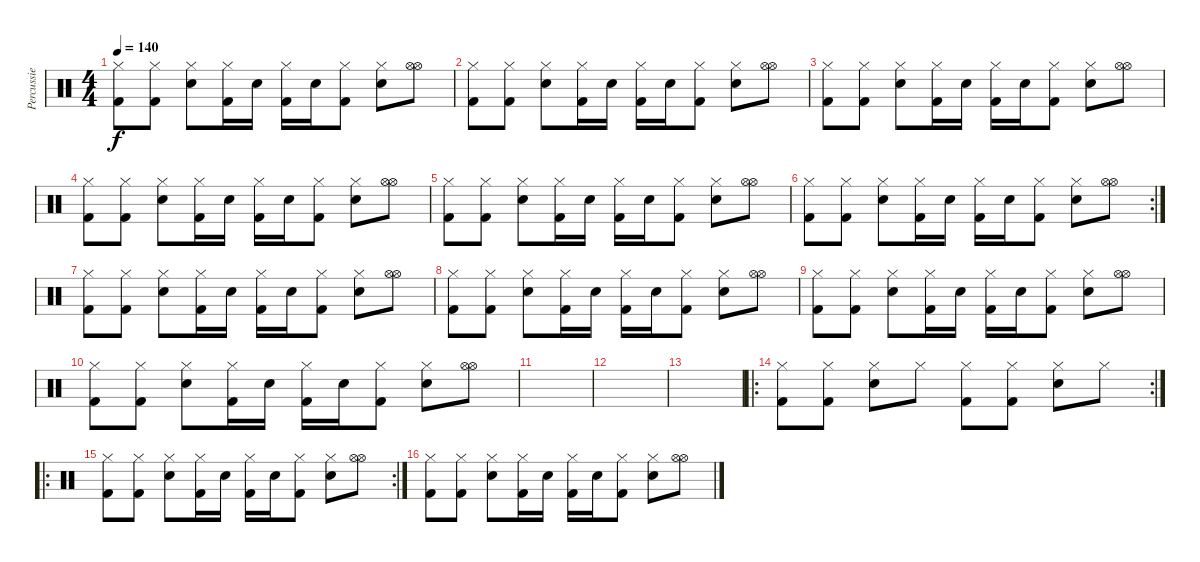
\track ("Percussie" "Percussie") {instrument percussion}
\staff {score}
\articulation defaults
\ts (4 4)
\tempo 140
\clef neutral
\ks c
("Hi-Hat (closed)" "Kick (hit) 2").8{dy f} ("Hi-Hat (closed)" "Kick (hit) 2").8 ("Hi-Hat (closed)" "Snare (hit) 2").8 ("Hi-Hat (closed)" "Kick (hit) 2").16 "Snare (hit) 2".16 ("Hi-Hat (closed)" "Kick (hit) 2").16 "Snare (hit) 2".16 ("Hi-Hat (closed)" "Kick (hit) 2").8 ("Hi-Hat (closed)" "Snare (hit) 2").8 ("Hi-Hat (open)" "Hi-Hat (open)").8 |
("Hi-Hat (closed)" "Kick (hit) 2").8 ("Hi-Hat (closed)" "Kick (hit) 2").8 ("Hi-Hat (closed)" "Snare (hit) 2").8 ("Hi-Hat (closed)" "Kick (hit) 2").16 "Snare (hit) 2".16 ("Hi-Hat (closed)" "Kick (hit) 2").16 "Snare (hit) 2".16 ("Hi-Hat (closed)" "Kick (hit) 2").8 ("Hi-Hat (closed)" "Snare (hit) 2").8 ("Hi-Hat (open)" "Hi-Hat (open)").8 |
("Hi-Hat (closed)" "Kick (hit) 2").8 ("Hi-Hat (closed)" "Kick (hit) 2").8 ("Hi-Hat (closed)" "Snare (hit) 2").8 ("Hi-Hat (closed)" "Kick (hit) 2").16 "Snare (hit) 2".16 ("Hi-Hat (closed)" "Kick (hit) 2").16 "Snare (hit) 2".16 ("Hi-Hat (closed)" "Kick (hit) 2").8 ("Hi-Hat (closed)" "Snare (hit) 2").8 ("Hi-Hat (open)" "Hi-Hat (open)").8 |
("Hi-Hat (closed)" "Kick (hit) 2").8 ("Hi-Hat (closed)" "Kick (hit) 2").8 ("Hi-Hat (closed)" "Snare (hit) 2").8 ("Hi-Hat (closed)" "Kick (hit) 2").16 "Snare (hit) 2".16 ("Hi-Hat (closed)" "Kick (hit) 2").16 "Snare (hit) 2".16 ("Hi-Hat (closed)" "Kick (hit) 2").8 ("Hi-Hat (closed)" "Snare (hit) 2").8 ("Hi-Hat (open)" "Hi-Hat (open)").8 |
("Hi-Hat (closed)" "Kick (hit) 2").8 ("Hi-Hat (closed)" "Kick (hit) 2").8 ("Hi-Hat (closed)" "Snare (hit) 2").8 ("Hi-Hat (closed)" "Kick (hit) 2").16 "Snare (hit) 2".16 ("Hi-Hat (closed)" "Kick (hit) 2").16 "Snare (hit) 2".16 ("Hi-Hat (closed)" "Kick (hit) 2").8 ("Hi-Hat (closed)" "Snare (hit) 2").8 ("Hi-Hat (open)" "Hi-Hat (open)").8 |
\rc 2
("Hi-Hat (closed)" "Kick (hit) 2").8 ("Hi-Hat (closed)" "Kick (hit) 2").8 ("Hi-Hat (closed)" "Snare (hit) 2").8 ("Hi-Hat (closed)" "Kick (hit) 2").16 "Snare (hit) 2".16 ("Hi-Hat (closed)" "Kick (hit) 2").16 "Snare (hit) 2".16 ("Hi-Hat (closed)" "Kick (hit) 2").8 ("Hi-Hat (closed)" "Snare (hit) 2").8 ("Hi-Hat (open)" "Hi-Hat (open)").8 |
("Hi-Hat (closed)" "Kick (hit) 2").8 ("Hi-Hat (closed)" "Kick (hit) 2").8 ("Hi-Hat (closed)" "Snare (hit) 2").8 ("Hi-Hat (closed)" "Kick (hit) 2").16 "Snare (hit) 2".16 ("Hi-Hat (closed)" "Kick (hit) 2").16 "Snare (hit) 2".16 ("Hi-Hat (closed)" "Kick (hit) 2").8 ("Hi-Hat (closed)" "Snare (hit) 2").8 ("Hi-Hat (open)" "Hi-Hat (open)").8 |
("Hi-Hat (closed)" "Kick (hit) 2").8 ("Hi-Hat (closed)" "Kick (hit) 2").8 ("Hi-Hat (closed)" "Snare (hit) 2").8 ("Hi-Hat (closed)" "Kick (hit) 2").16 "Snare (hit) 2".16 ("Hi-Hat (closed)" "Kick (hit) 2").16 "Snare (hit) 2".16 ("Hi-Hat (closed)" "Kick (hit) 2").8 ("Hi-Hat (closed)" "Snare (hit) 2").8 ("Hi-Hat (open)" "Hi-Hat (open)").8 |
("Hi-Hat (closed)" "Kick (hit) 2").8 ("Hi-Hat (closed)" "Kick (hit) 2").8 ("Hi-Hat (closed)" "Snare (hit) 2").8 ("Hi-Hat (closed)" "Kick (hit) 2").16 "Snare (hit) 2".16 ("Hi-Hat (closed)" "Kick (hit) 2").16 "Snare (hit) 2".16 ("Hi-Hat (closed)" "Kick (hit) 2").8 ("Hi-Hat (closed)" "Snare (hit) 2").8 ("Hi-Hat (open)" "Hi-Hat (open)").8 |
("Hi-Hat (closed)" "Kick (hit) 2").8 ("Hi-Hat (closed)" "Kick (hit) 2").8 ("Hi-Hat (closed)" "Snare (hit) 2").8 ("Hi-Hat (closed)" "Kick (hit) 2").16 "Snare (hit) 2".16 ("Hi-Hat (closed)" "Kick (hit) 2").16 "Snare (hit) 2".16 ("Hi-Hat (closed)" "Kick (hit) 2").8 ("Hi-Hat (closed)" "Snare (hit) 2").8 ("Hi-Hat (open)" "Hi-Hat (open)").8 |
|
|
|
\ro
\rc 2
("Hi-Hat (closed)" "Kick (hit) 2").8 ("Hi-Hat (closed)" "Kick (hit) 2").8 ("Hi-Hat (closed)" "Snare (hit) 2").8 "Hi-Hat (closed)".8 ("Hi-Hat (closed)" "Kick (hit) 2").8 ("Hi-Hat (closed)" "Kick (hit) 2").8 ("Hi-Hat (closed)" "Snare (hit) 2").8 "Hi-Hat (closed)".8 |
\ro
\rc 2
("Hi-Hat (closed)" "Kick (hit) 2").8 ("Hi-Hat (closed)" "Kick (hit) 2").8 ("Hi-Hat (closed)" "Snare (hit) 2").8 ("Hi-Hat (closed)" "Kick (hit) 2").16 "Snare (hit) 2".16 ("Hi-Hat (closed)" "Kick (hit) 2").16 "Snare (hit) 2".16 ("Hi-Hat (closed)" "Kick (hit) 2").8 ("Hi-Hat (closed)" "Snare (hit) 2").8 ("Hi-Hat (open)" "Hi-Hat (open)").8 |
("Hi-Hat (closed)" "Kick (hit) 2").8 ("Hi-Hat (closed)" "Kick (hit) 2").8 ("Hi-Hat (closed)" "Snare (hit) 2").8 ("Hi-Hat (closed)" "Kick (hit) 2").16 "Snare (hit) 2".16 ("Hi-Hat (closed)" "Kick (hit) 2").16 "Snare (hit) 2".16 ("Hi-Hat (closed)" "Kick (hit) 2").8 ("Hi-Hat (closed)" "Snare (hit) 2").8 ("Hi-Hat (open)" "Hi-Hat (open)").8
